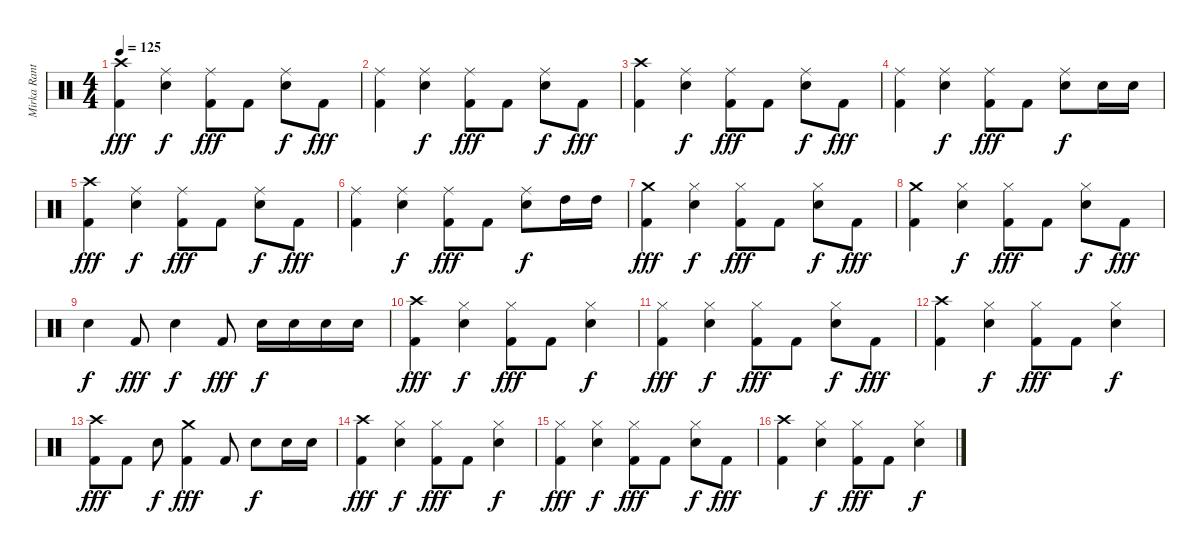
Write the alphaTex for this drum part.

\track ("Mirka Rantanen (Thunderstone)" "Mirka Rant") {instrument percussion}
\staff {score}
\articulation defaults
\ts (4 4)
\tempo 125
\clef neutral
\ks c
("Crash high (hit)" "Kick (hit) 2").4{dy fff} ("Ride (middle)" "Electric Snare (hit)").4{dy f} ("Ride (middle)" "Kick (hit) 2").8{dy fff} "Kick (hit) 2".8 ("Ride (middle)" "Electric Snare (hit)").8{dy f} "Kick (hit) 2".8{dy fff} |
("Ride (middle)" "Kick (hit) 2").4 ("Ride (middle)" "Electric Snare (hit)").4{dy f} ("Ride (middle)" "Kick (hit) 2").8{dy fff} "Kick (hit) 2".8 ("Ride (middle)" "Electric Snare (hit)").8{dy f} "Kick (hit) 2".8{dy fff} |
("Crash high (hit)" "Kick (hit) 2").4 ("Ride (middle)" "Electric Snare (hit)").4{dy f} ("Ride (middle)" "Kick (hit) 2").8{dy fff} "Kick (hit) 2".8 ("Ride (middle)" "Electric Snare (hit)").8{dy f} "Kick (hit) 2".8{dy fff} |
("Ride (middle)" "Kick (hit) 2").4 ("Ride (middle)" "Electric Snare (hit)").4{dy f} ("Ride (middle)" "Kick (hit) 2").8{dy fff} "Kick (hit) 2".8 ("Ride (middle)" "Electric Snare (hit)").8{dy f} "Electric Snare (hit)".16 "Electric Snare (hit)".16 |
("Crash high (hit)" "Kick (hit) 2").4{dy fff} ("Ride (middle)" "Electric Snare (hit)").4{dy f} ("Ride (middle)" "Kick (hit) 2").8{dy fff} "Kick (hit) 2".8 ("Ride (middle)" "Electric Snare (hit)").8{dy f} "Kick (hit) 2".8{dy fff} |
("Ride (middle)" "Kick (hit) 2").4 ("Ride (middle)" "Electric Snare (hit)").4{dy f} ("Ride (middle)" "Kick (hit) 2").8{dy fff} "Kick (hit) 2".8 ("Ride (middle)" "Electric Snare (hit)").8{dy f} "High Tom (hit)".16 "High Tom (hit)".16 |
("Crash medium (hit)" "Kick (hit) 2").4{dy fff} ("Hi-Hat (closed)" "Electric Snare (hit)").4{dy f} ("Hi-Hat (closed)" "Kick (hit) 2").8{dy fff} "Kick (hit) 2".8 ("Hi-Hat (closed)" "Electric Snare (hit)").8{dy f} "Kick (hit) 2".8{dy fff} |
("Crash medium (hit)" "Kick (hit) 2").4 ("Hi-Hat (closed)" "Electric Snare (hit)").4{dy f} ("Hi-Hat (closed)" "Kick (hit) 2").8{dy fff} "Kick (hit) 2".8 ("Hi-Hat (closed)" "Electric Snare (hit)").8{dy f} "Kick (hit) 2".8{dy fff} |
"Electric Snare (hit)".4{dy f} "Kick (hit) 2".8{dy fff} "Electric Snare (hit)".4{dy f} "Kick (hit) 2".8{dy fff} "Electric Snare (hit)".16{dy f} "Electric Snare (hit)".16 "Electric Snare (hit)".16 "Electric Snare (hit)".16 |
("Crash high (hit)" "Kick (hit) 2").4{dy fff} ("Hi-Hat (closed)" "Electric Snare (hit)").4{dy f} ("Hi-Hat (closed)" "Kick (hit) 2").8{dy fff} "Kick (hit) 2".8 ("Hi-Hat (closed)" "Electric Snare (hit)").4{dy f} |
("Hi-Hat (closed)" "Kick (hit) 2").4{dy fff} ("Hi-Hat (closed)" "Electric Snare (hit)").4{dy f} ("Hi-Hat (closed)" "Kick (hit) 2").8{dy fff} "Kick (hit) 2".8 ("Hi-Hat (closed)" "Electric Snare (hit)").8{dy f} "Kick (hit) 2".8{dy fff} |
("Crash high (hit)" "Kick (hit) 2").4 ("Hi-Hat (closed)" "Electric Snare (hit)").4{dy f} ("Hi-Hat (closed)" "Kick (hit) 2").8{dy fff} "Kick (hit) 2".8 ("Hi-Hat (closed)" "Electric Snare (hit)").4{dy f} |
("Crash high (hit)" "Kick (hit) 2").8{dy fff} "Kick (hit) 2".8 "Electric Snare (hit)".8{dy f} ("Crash medium (hit)" "Kick (hit) 2").4{dy fff} "Kick (hit) 2".8 "Electric Snare (hit)".8{dy f} "Electric Snare (hit)".16 "Electric Snare (hit)".16 |
("Crash high (hit)" "Kick (hit) 2").4{dy fff} ("Hi-Hat (closed)" "Electric Snare (hit)").4{dy f} ("Hi-Hat (closed)" "Kick (hit) 2").8{dy fff} "Kick (hit) 2".8 ("Hi-Hat (closed)" "Electric Snare (hit)").4{dy f} |
("Hi-Hat (closed)" "Kick (hit) 2").4{dy fff} ("Hi-Hat (closed)" "Electric Snare (hit)").4{dy f} ("Hi-Hat (closed)" "Kick (hit) 2").8{dy fff} "Kick (hit) 2".8 ("Hi-Hat (closed)" "Electric Snare (hit)").8{dy f} "Kick (hit) 2".8{dy fff} |
("Crash high (hit)" "Kick (hit) 2").4 ("Hi-Hat (closed)" "Electric Snare (hit)").4{dy f} ("Hi-Hat (closed)" "Kick (hit) 2").8{dy fff} "Kick (hit) 2".8 ("Hi-Hat (closed)" "Electric Snare (hit)").4{dy f}
